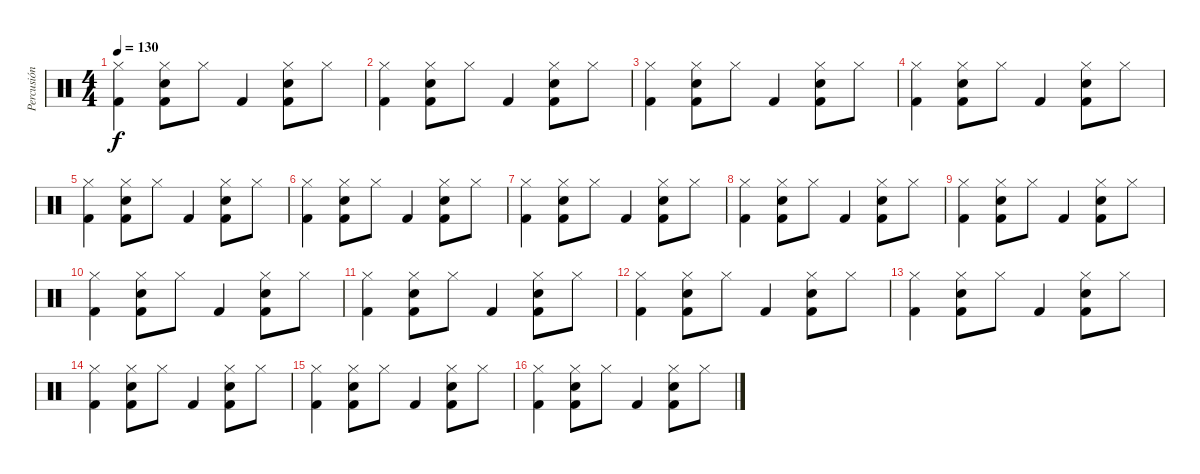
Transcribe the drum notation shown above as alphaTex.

\track ("Percusión" "Percusión") {instrument percussion}
\staff {score}
\articulation defaults
\ts (4 4)
\tempo 130
\clef neutral
\ks c
("Hi-Hat (closed)" "Kick (hit) 2").4{dy f} ("Hi-Hat (closed)" "Snare (hit) 2" "Kick (hit) 2").8 "Hi-Hat (closed)".8 "Kick (hit) 2".4 ("Hi-Hat (closed)" "Snare (hit) 2" "Kick (hit) 2").8 "Hi-Hat (closed)".8 |
("Hi-Hat (closed)" "Kick (hit) 2").4 ("Hi-Hat (closed)" "Snare (hit) 2" "Kick (hit) 2").8 "Hi-Hat (closed)".8 "Kick (hit) 2".4 ("Hi-Hat (closed)" "Snare (hit) 2" "Kick (hit) 2").8 "Hi-Hat (closed)".8 |
("Hi-Hat (closed)" "Kick (hit) 2").4 ("Hi-Hat (closed)" "Snare (hit) 2" "Kick (hit) 2").8 "Hi-Hat (closed)".8 "Kick (hit) 2".4 ("Hi-Hat (closed)" "Snare (hit) 2" "Kick (hit) 2").8 "Hi-Hat (closed)".8 |
("Hi-Hat (closed)" "Kick (hit) 2").4 ("Hi-Hat (closed)" "Snare (hit) 2" "Kick (hit) 2").8 "Hi-Hat (closed)".8 "Kick (hit) 2".4 ("Hi-Hat (closed)" "Snare (hit) 2" "Kick (hit) 2").8 "Hi-Hat (closed)".8 |
("Hi-Hat (closed)" "Kick (hit) 2").4 ("Hi-Hat (closed)" "Snare (hit) 2" "Kick (hit) 2").8 "Hi-Hat (closed)".8 "Kick (hit) 2".4 ("Hi-Hat (closed)" "Snare (hit) 2" "Kick (hit) 2").8 "Hi-Hat (closed)".8 |
("Hi-Hat (closed)" "Kick (hit) 2").4 ("Hi-Hat (closed)" "Snare (hit) 2" "Kick (hit) 2").8 "Hi-Hat (closed)".8 "Kick (hit) 2".4 ("Hi-Hat (closed)" "Snare (hit) 2" "Kick (hit) 2").8 "Hi-Hat (closed)".8 |
("Hi-Hat (closed)" "Kick (hit) 2").4 ("Hi-Hat (closed)" "Snare (hit) 2" "Kick (hit) 2").8 "Hi-Hat (closed)".8 "Kick (hit) 2".4 ("Hi-Hat (closed)" "Snare (hit) 2" "Kick (hit) 2").8 "Hi-Hat (closed)".8 |
("Hi-Hat (closed)" "Kick (hit) 2").4 ("Hi-Hat (closed)" "Snare (hit) 2" "Kick (hit) 2").8 "Hi-Hat (closed)".8 "Kick (hit) 2".4 ("Hi-Hat (closed)" "Snare (hit) 2" "Kick (hit) 2").8 "Hi-Hat (closed)".8 |
("Hi-Hat (closed)" "Kick (hit) 2").4 ("Hi-Hat (closed)" "Snare (hit) 2" "Kick (hit) 2").8 "Hi-Hat (closed)".8 "Kick (hit) 2".4 ("Hi-Hat (closed)" "Snare (hit) 2" "Kick (hit) 2").8 "Hi-Hat (closed)".8 |
("Hi-Hat (closed)" "Kick (hit) 2").4 ("Hi-Hat (closed)" "Snare (hit) 2" "Kick (hit) 2").8 "Hi-Hat (closed)".8 "Kick (hit) 2".4 ("Hi-Hat (closed)" "Snare (hit) 2" "Kick (hit) 2").8 "Hi-Hat (closed)".8 |
("Hi-Hat (closed)" "Kick (hit) 2").4 ("Hi-Hat (closed)" "Snare (hit) 2" "Kick (hit) 2").8 "Hi-Hat (closed)".8 "Kick (hit) 2".4 ("Hi-Hat (closed)" "Snare (hit) 2" "Kick (hit) 2").8 "Hi-Hat (closed)".8 |
("Hi-Hat (closed)" "Kick (hit) 2").4 ("Hi-Hat (closed)" "Snare (hit) 2" "Kick (hit) 2").8 "Hi-Hat (closed)".8 "Kick (hit) 2".4 ("Hi-Hat (closed)" "Snare (hit) 2" "Kick (hit) 2").8 "Hi-Hat (closed)".8 |
("Hi-Hat (closed)" "Kick (hit) 2").4 ("Hi-Hat (closed)" "Snare (hit) 2" "Kick (hit) 2").8 "Hi-Hat (closed)".8 "Kick (hit) 2".4 ("Hi-Hat (closed)" "Snare (hit) 2" "Kick (hit) 2").8 "Hi-Hat (closed)".8 |
("Hi-Hat (closed)" "Kick (hit) 2").4 ("Hi-Hat (closed)" "Snare (hit) 2" "Kick (hit) 2").8 "Hi-Hat (closed)".8 "Kick (hit) 2".4 ("Hi-Hat (closed)" "Snare (hit) 2" "Kick (hit) 2").8 "Hi-Hat (closed)".8 |
("Hi-Hat (closed)" "Kick (hit) 2").4 ("Hi-Hat (closed)" "Snare (hit) 2" "Kick (hit) 2").8 "Hi-Hat (closed)".8 "Kick (hit) 2".4 ("Hi-Hat (closed)" "Snare (hit) 2" "Kick (hit) 2").8 "Hi-Hat (closed)".8 |
("Hi-Hat (closed)" "Kick (hit) 2").4 ("Hi-Hat (closed)" "Snare (hit) 2" "Kick (hit) 2").8 "Hi-Hat (closed)".8 "Kick (hit) 2".4 ("Hi-Hat (closed)" "Snare (hit) 2" "Kick (hit) 2").8 "Hi-Hat (closed)".8
